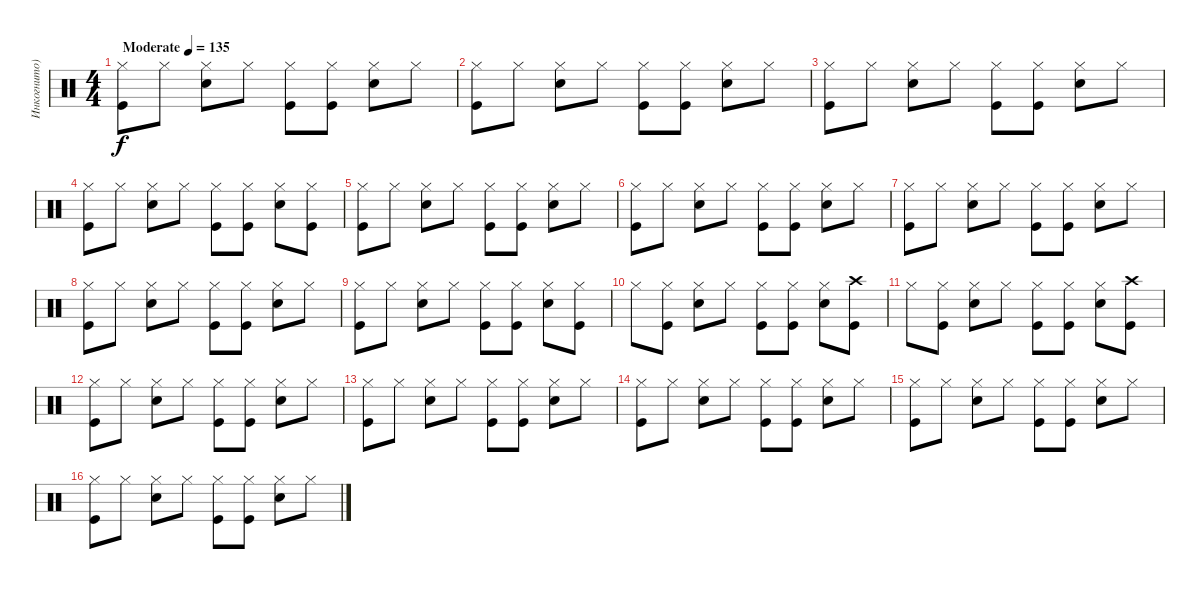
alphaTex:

\track ("Инкогнито)" "Инкогнито)") {instrument percussion}
\staff {score}
\articulation defaults
\ts (4 4)
\tempo (135 "Moderate")
\clef neutral
\ks c
("Hi-Hat (closed)" "Kick (hit)").8{dy f} "Hi-Hat (closed)".8 ("Hi-Hat (closed)" "Snare (hit) 2").8 "Hi-Hat (closed)".8 ("Hi-Hat (closed)" "Kick (hit)").8 ("Hi-Hat (closed)" "Kick (hit)").8 ("Hi-Hat (closed)" "Snare (hit) 2").8 "Hi-Hat (closed)".8 |
("Hi-Hat (closed)" "Kick (hit)").8 "Hi-Hat (closed)".8 ("Hi-Hat (closed)" "Snare (hit) 2").8 "Hi-Hat (closed)".8 ("Hi-Hat (closed)" "Kick (hit)").8 ("Hi-Hat (closed)" "Kick (hit)").8 ("Hi-Hat (closed)" "Snare (hit) 2").8 "Hi-Hat (closed)".8 |
("Hi-Hat (closed)" "Kick (hit)").8 "Hi-Hat (closed)".8 ("Hi-Hat (closed)" "Snare (hit) 2").8 "Hi-Hat (closed)".8 ("Hi-Hat (closed)" "Kick (hit)").8 ("Hi-Hat (closed)" "Kick (hit)").8 ("Hi-Hat (closed)" "Snare (hit) 2").8 "Hi-Hat (closed)".8 |
("Hi-Hat (closed)" "Kick (hit)").8 "Hi-Hat (closed)".8 ("Hi-Hat (closed)" "Snare (hit) 2").8 "Hi-Hat (closed)".8 ("Hi-Hat (closed)" "Kick (hit)").8 ("Hi-Hat (closed)" "Kick (hit)").8 ("Hi-Hat (closed)" "Snare (hit) 2").8 ("Hi-Hat (closed)" "Kick (hit)").8 |
("Hi-Hat (closed)" "Kick (hit)").8 "Hi-Hat (closed)".8 ("Hi-Hat (closed)" "Snare (hit) 2").8 "Hi-Hat (closed)".8 ("Hi-Hat (closed)" "Kick (hit)").8 ("Hi-Hat (closed)" "Kick (hit)").8 ("Hi-Hat (closed)" "Snare (hit) 2").8 "Hi-Hat (closed)".8 |
("Hi-Hat (closed)" "Kick (hit)").8 "Hi-Hat (closed)".8 ("Hi-Hat (closed)" "Snare (hit) 2").8 "Hi-Hat (closed)".8 ("Hi-Hat (closed)" "Kick (hit)").8 ("Hi-Hat (closed)" "Kick (hit)").8 ("Hi-Hat (closed)" "Snare (hit) 2").8 "Hi-Hat (closed)".8 |
("Hi-Hat (closed)" "Kick (hit)").8 "Hi-Hat (closed)".8 ("Hi-Hat (closed)" "Snare (hit) 2").8 "Hi-Hat (closed)".8 ("Hi-Hat (closed)" "Kick (hit)").8 ("Hi-Hat (closed)" "Kick (hit)").8 ("Hi-Hat (closed)" "Snare (hit) 2").8 "Hi-Hat (closed)".8 |
("Hi-Hat (closed)" "Kick (hit)").8 "Hi-Hat (closed)".8 ("Hi-Hat (closed)" "Snare (hit) 2").8 "Hi-Hat (closed)".8 ("Hi-Hat (closed)" "Kick (hit)").8 ("Hi-Hat (closed)" "Kick (hit)").8 ("Hi-Hat (closed)" "Snare (hit) 2").8 "Hi-Hat (closed)".8 |
("Hi-Hat (closed)" "Kick (hit)").8 "Hi-Hat (closed)".8 ("Hi-Hat (closed)" "Snare (hit) 2").8 "Hi-Hat (closed)".8 ("Hi-Hat (closed)" "Kick (hit)").8 ("Hi-Hat (closed)" "Kick (hit)").8 ("Hi-Hat (closed)" "Snare (hit) 2").8 ("Hi-Hat (closed)" "Kick (hit)").8 |
"Hi-Hat (closed)".8 ("Hi-Hat (closed)" "Kick (hit)").8 ("Hi-Hat (closed)" "Snare (hit) 2").8 "Hi-Hat (closed)".8 ("Hi-Hat (closed)" "Kick (hit)").8 ("Hi-Hat (closed)" "Kick (hit)").8 ("Hi-Hat (closed)" "Snare (hit) 2").8 ("Crash high (hit)" "Kick (hit)").8 |
"Hi-Hat (closed)".8 ("Hi-Hat (closed)" "Kick (hit)").8 ("Hi-Hat (closed)" "Snare (hit) 2").8 "Hi-Hat (closed)".8 ("Hi-Hat (closed)" "Kick (hit)").8 ("Hi-Hat (closed)" "Kick (hit)").8 ("Hi-Hat (closed)" "Snare (hit) 2").8 ("Crash high (hit)" "Kick (hit)").8 |
("Hi-Hat (closed)" "Kick (hit)").8 "Hi-Hat (closed)".8 ("Hi-Hat (closed)" "Snare (hit) 2").8 "Hi-Hat (closed)".8 ("Hi-Hat (closed)" "Kick (hit)").8 ("Hi-Hat (closed)" "Kick (hit)").8 ("Hi-Hat (closed)" "Snare (hit) 2").8 "Hi-Hat (closed)".8 |
("Hi-Hat (closed)" "Kick (hit)").8 "Hi-Hat (closed)".8 ("Hi-Hat (closed)" "Snare (hit) 2").8 "Hi-Hat (closed)".8 ("Hi-Hat (closed)" "Kick (hit)").8 ("Hi-Hat (closed)" "Kick (hit)").8 ("Hi-Hat (closed)" "Snare (hit) 2").8 "Hi-Hat (closed)".8 |
("Hi-Hat (closed)" "Kick (hit)").8 "Hi-Hat (closed)".8 ("Hi-Hat (closed)" "Snare (hit) 2").8 "Hi-Hat (closed)".8 ("Hi-Hat (closed)" "Kick (hit)").8 ("Hi-Hat (closed)" "Kick (hit)").8 ("Hi-Hat (closed)" "Snare (hit) 2").8 "Hi-Hat (closed)".8 |
("Hi-Hat (closed)" "Kick (hit)").8 "Hi-Hat (closed)".8 ("Hi-Hat (closed)" "Snare (hit) 2").8 "Hi-Hat (closed)".8 ("Hi-Hat (closed)" "Kick (hit)").8 ("Hi-Hat (closed)" "Kick (hit)").8 ("Hi-Hat (closed)" "Snare (hit) 2").8 "Hi-Hat (closed)".8 |
("Hi-Hat (closed)" "Kick (hit)").8 "Hi-Hat (closed)".8 ("Hi-Hat (closed)" "Snare (hit) 2").8 "Hi-Hat (closed)".8 ("Hi-Hat (closed)" "Kick (hit)").8 ("Hi-Hat (closed)" "Kick (hit)").8 ("Hi-Hat (closed)" "Snare (hit) 2").8 "Hi-Hat (closed)".8
